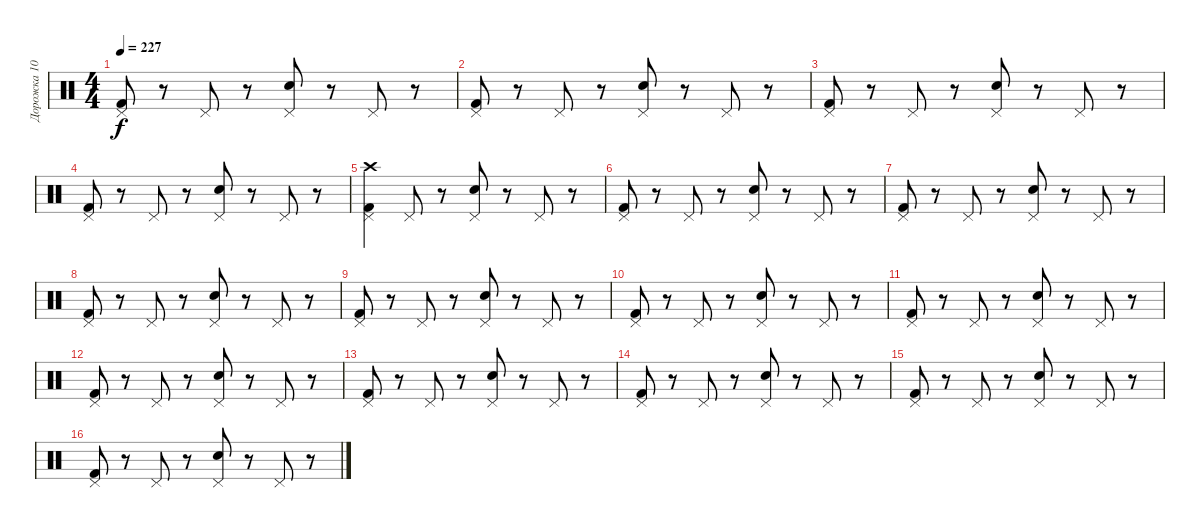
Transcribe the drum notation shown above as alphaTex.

\track ("Дорожка 10" "Дорожка 10") {instrument percussion}
\staff {score}
\articulation defaults
\ts (4 4)
\tempo 227
\clef neutral
\ks c
("Pedal Hi-Hat (hit)" "Kick (hit) 2").8{dy f} r.8 "Pedal Hi-Hat (hit)".8 r.8 ("Pedal Hi-Hat (hit)" "Snare (hit) 2").8 r.8 "Pedal Hi-Hat (hit)".8 r.8 |
("Kick (hit) 2" "Pedal Hi-Hat (hit)").8 r.8 "Pedal Hi-Hat (hit)".8 r.8 ("Pedal Hi-Hat (hit)" "Snare (hit) 2").8 r.8 "Pedal Hi-Hat (hit)".8 r.8 |
("Pedal Hi-Hat (hit)" "Kick (hit) 2").8 r.8 "Pedal Hi-Hat (hit)".8 r.8 ("Pedal Hi-Hat (hit)" "Snare (hit) 2").8 r.8 "Pedal Hi-Hat (hit)".8 r.8 |
("Kick (hit) 2" "Pedal Hi-Hat (hit)").8 r.8 "Pedal Hi-Hat (hit)".8 r.8 ("Pedal Hi-Hat (hit)" "Snare (hit) 2").8 r.8 "Pedal Hi-Hat (hit)".8 r.8 |
("Pedal Hi-Hat (hit)" "Kick (hit) 2" "Crash high (hit)").4 "Pedal Hi-Hat (hit)".8 r.8 ("Pedal Hi-Hat (hit)" "Snare (hit) 2").8 r.8 "Pedal Hi-Hat (hit)".8 r.8 |
("Kick (hit) 2" "Pedal Hi-Hat (hit)").8 r.8 "Pedal Hi-Hat (hit)".8 r.8 ("Pedal Hi-Hat (hit)" "Snare (hit) 2").8 r.8 "Pedal Hi-Hat (hit)".8 r.8 |
("Pedal Hi-Hat (hit)" "Kick (hit) 2").8 r.8 "Pedal Hi-Hat (hit)".8 r.8 ("Pedal Hi-Hat (hit)" "Snare (hit) 2").8 r.8 "Pedal Hi-Hat (hit)".8 r.8 |
("Kick (hit) 2" "Pedal Hi-Hat (hit)").8 r.8 "Pedal Hi-Hat (hit)".8 r.8 ("Pedal Hi-Hat (hit)" "Snare (hit) 2").8 r.8 "Pedal Hi-Hat (hit)".8 r.8 |
("Pedal Hi-Hat (hit)" "Kick (hit) 2").8 r.8 "Pedal Hi-Hat (hit)".8 r.8 ("Pedal Hi-Hat (hit)" "Snare (hit) 2").8 r.8 "Pedal Hi-Hat (hit)".8 r.8 |
("Kick (hit) 2" "Pedal Hi-Hat (hit)").8 r.8 "Pedal Hi-Hat (hit)".8 r.8 ("Pedal Hi-Hat (hit)" "Snare (hit) 2").8 r.8 "Pedal Hi-Hat (hit)".8 r.8 |
("Pedal Hi-Hat (hit)" "Kick (hit) 2").8 r.8 "Pedal Hi-Hat (hit)".8 r.8 ("Pedal Hi-Hat (hit)" "Snare (hit) 2").8 r.8 "Pedal Hi-Hat (hit)".8 r.8 |
("Kick (hit) 2" "Pedal Hi-Hat (hit)").8 r.8 "Pedal Hi-Hat (hit)".8 r.8 ("Pedal Hi-Hat (hit)" "Snare (hit) 2").8 r.8 "Pedal Hi-Hat (hit)".8 r.8 |
("Pedal Hi-Hat (hit)" "Kick (hit) 2").8 r.8 "Pedal Hi-Hat (hit)".8 r.8 ("Pedal Hi-Hat (hit)" "Snare (hit) 2").8 r.8 "Pedal Hi-Hat (hit)".8 r.8 |
("Kick (hit) 2" "Pedal Hi-Hat (hit)").8 r.8 "Pedal Hi-Hat (hit)".8 r.8 ("Pedal Hi-Hat (hit)" "Snare (hit) 2").8 r.8 "Pedal Hi-Hat (hit)".8 r.8 |
("Pedal Hi-Hat (hit)" "Kick (hit) 2").8 r.8 "Pedal Hi-Hat (hit)".8 r.8 ("Pedal Hi-Hat (hit)" "Snare (hit) 2").8 r.8 "Pedal Hi-Hat (hit)".8 r.8 |
("Kick (hit) 2" "Pedal Hi-Hat (hit)").8 r.8 "Pedal Hi-Hat (hit)".8 r.8 ("Pedal Hi-Hat (hit)" "Snare (hit) 2").8 r.8 "Pedal Hi-Hat (hit)".8 r.8
